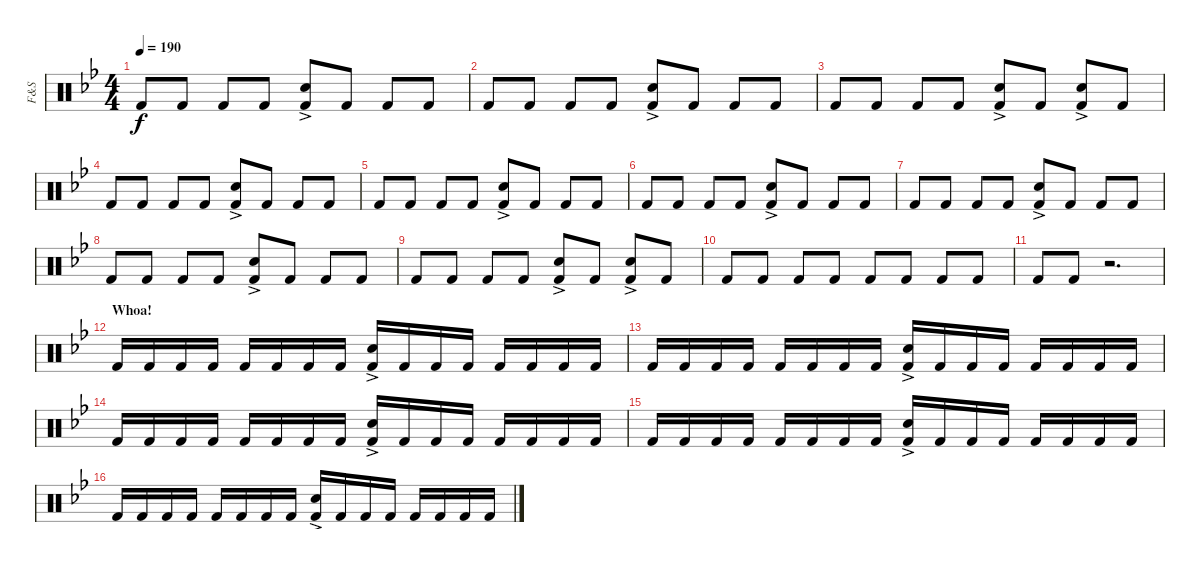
\track ("F&S" "F&S") {instrument percussion}
\staff {score}
\articulation defaults
\ts (4 4)
\tempo 190
\clef neutral
\ks bb "Kick (hit) 2".8{dy f} "Kick (hit) 2".8 "Kick (hit) 2".8 "Kick (hit) 2".8
("Kick (hit) 2" "Snare (hit) 2"{ac}).8 "Kick (hit) 2".8 "Kick (hit) 2".8 "Kick (hit) 2".8 |
"Kick (hit) 2".8 "Kick (hit) 2".8 "Kick (hit) 2".8 "Kick (hit) 2".8 ("Kick (hit) 2" "Snare (hit) 2"{ac}).8 "Kick (hit) 2".8 "Kick (hit) 2".8 "Kick (hit) 2".8 |
"Kick (hit) 2".8 "Kick (hit) 2".8 "Kick (hit) 2".8 "Kick (hit) 2".8 ("Kick (hit) 2" "Snare (hit) 2"{ac}).8 "Kick (hit) 2".8 ("Kick (hit) 2" "Snare (hit) 2"{ac}).8 "Kick (hit) 2".8 |
"Kick (hit) 2".8 "Kick (hit) 2".8 "Kick (hit) 2".8 "Kick (hit) 2".8 ("Kick (hit) 2" "Snare (hit) 2"{ac}).8 "Kick (hit) 2".8 "Kick (hit) 2".8 "Kick (hit) 2".8 |
"Kick (hit) 2".8 "Kick (hit) 2".8 "Kick (hit) 2".8 "Kick (hit) 2".8 ("Kick (hit) 2" "Snare (hit) 2"{ac}).8 "Kick (hit) 2".8 "Kick (hit) 2".8 "Kick (hit) 2".8 |
"Kick (hit) 2".8 "Kick (hit) 2".8 "Kick (hit) 2".8 "Kick (hit) 2".8 ("Kick (hit) 2" "Snare (hit) 2"{ac}).8 "Kick (hit) 2".8 "Kick (hit) 2".8 "Kick (hit) 2".8 |
"Kick (hit) 2".8 "Kick (hit) 2".8 "Kick (hit) 2".8 "Kick (hit) 2".8 ("Kick (hit) 2" "Snare (hit) 2"{ac}).8 "Kick (hit) 2".8 "Kick (hit) 2".8 "Kick (hit) 2".8 |
"Kick (hit) 2".8 "Kick (hit) 2".8 "Kick (hit) 2".8 "Kick (hit) 2".8 ("Kick (hit) 2" "Snare (hit) 2"{ac}).8 "Kick (hit) 2".8 "Kick (hit) 2".8 "Kick (hit) 2".8 |
"Kick (hit) 2".8 "Kick (hit) 2".8 "Kick (hit) 2".8 "Kick (hit) 2".8 ("Kick (hit) 2" "Snare (hit) 2"{ac}).8 "Kick (hit) 2".8 ("Kick (hit) 2" "Snare (hit) 2"{ac}).8 "Kick (hit) 2".8 |
"Kick (hit) 2".8 "Kick (hit) 2".8 "Kick (hit) 2".8 "Kick (hit) 2".8 "Kick (hit) 2".8 "Kick (hit) 2".8 "Kick (hit) 2".8 "Kick (hit) 2".8 |
"Kick (hit) 2".8 "Kick (hit) 2".8 r.2{d} |
\section ("" "Whoa!")
"Kick (hit) 2".16 "Kick (hit) 2".16 "Kick (hit) 2".16 "Kick (hit) 2".16 "Kick (hit) 2".16 "Kick (hit) 2".16 "Kick (hit) 2".16 "Kick (hit) 2".16 ("Kick (hit) 2" "Snare (hit) 2"{ac}).16 "Kick (hit) 2".16 "Kick (hit) 2".16 "Kick (hit) 2".16 "Kick (hit) 2".16 "Kick (hit) 2".16 "Kick (hit) 2".16 "Kick (hit) 2".16 |
"Kick (hit) 2".16 "Kick (hit) 2".16 "Kick (hit) 2".16 "Kick (hit) 2".16 "Kick (hit) 2".16 "Kick (hit) 2".16 "Kick (hit) 2".16 "Kick (hit) 2".16 ("Kick (hit) 2" "Snare (hit) 2"{ac}).16 "Kick (hit) 2".16 "Kick (hit) 2".16 "Kick (hit) 2".16 "Kick (hit) 2".16 "Kick (hit) 2".16 "Kick (hit) 2".16 "Kick (hit) 2".16 |
"Kick (hit) 2".16 "Kick (hit) 2".16 "Kick (hit) 2".16 "Kick (hit) 2".16 "Kick (hit) 2".16 "Kick (hit) 2".16 "Kick (hit) 2".16 "Kick (hit) 2".16 ("Kick (hit) 2" "Snare (hit) 2"{ac}).16 "Kick (hit) 2".16 "Kick (hit) 2".16 "Kick (hit) 2".16 "Kick (hit) 2".16 "Kick (hit) 2".16 "Kick (hit) 2".16 "Kick (hit) 2".16 |
"Kick (hit) 2".16 "Kick (hit) 2".16 "Kick (hit) 2".16 "Kick (hit) 2".16 "Kick (hit) 2".16 "Kick (hit) 2".16 "Kick (hit) 2".16 "Kick (hit) 2".16 ("Kick (hit) 2" "Snare (hit) 2"{ac}).16 "Kick (hit) 2".16 "Kick (hit) 2".16 "Kick (hit) 2".16 "Kick (hit) 2".16 "Kick (hit) 2".16 "Kick (hit) 2".16 "Kick (hit) 2".16 |
"Kick (hit) 2".16 "Kick (hit) 2".16 "Kick (hit) 2".16 "Kick (hit) 2".16 "Kick (hit) 2".16 "Kick (hit) 2".16 "Kick (hit) 2".16 "Kick (hit) 2".16 ("Kick (hit) 2" "Snare (hit) 2"{ac}).16 "Kick (hit) 2".16 "Kick (hit) 2".16 "Kick (hit) 2".16 "Kick (hit) 2".16 "Kick (hit) 2".16 "Kick (hit) 2".16 "Kick (hit) 2".16
